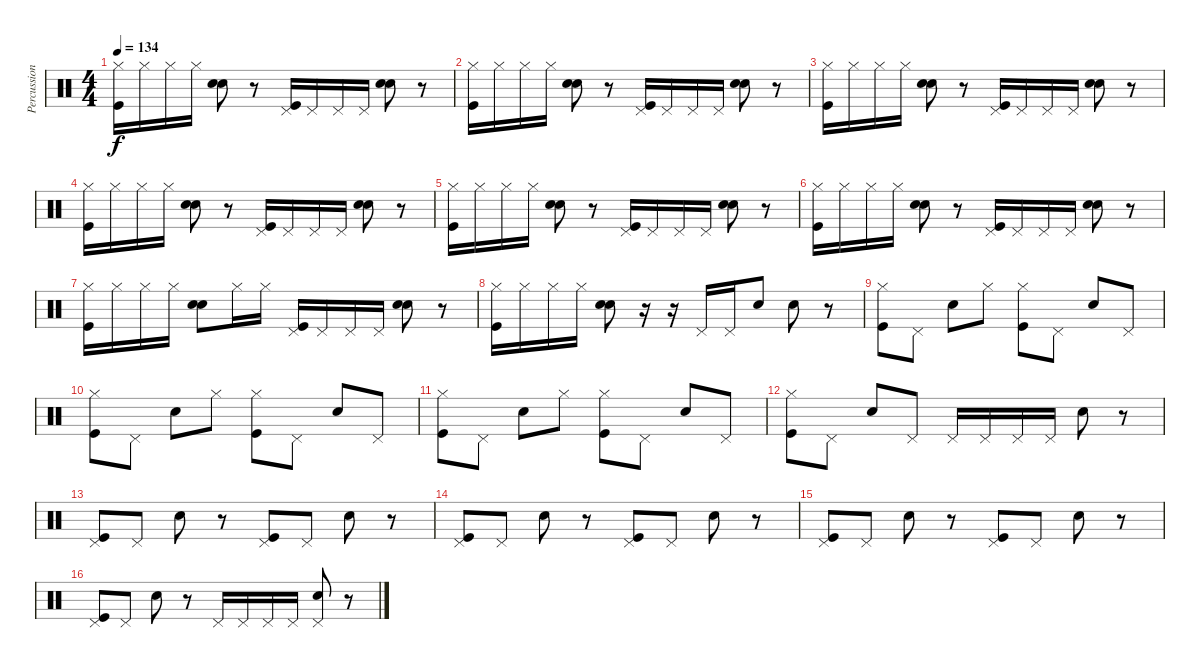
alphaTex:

\track ("Percussion" "Percussion") {instrument percussion}
\staff {score}
\articulation defaults
\ts (4 4)
\tempo 134
\clef neutral
\ks c
("Hi-Hat (closed)" "Kick (hit)").16{dy f} "Hi-Hat (closed)".16 "Hi-Hat (closed)".16 "Hi-Hat (closed)".16 ("Hand Clap (hit)" "Electric Snare (hit)").8 r.8 ("Pedal Hi-Hat (hit)" "Kick (hit)").16 "Pedal Hi-Hat (hit)".16 "Pedal Hi-Hat (hit)".16 "Pedal Hi-Hat (hit)".16 ("Hand Clap (hit)" "Electric Snare (hit)").8 r.8 |
("Hi-Hat (closed)" "Kick (hit)").16 "Hi-Hat (closed)".16 "Hi-Hat (closed)".16 "Hi-Hat (closed)".16 ("Hand Clap (hit)" "Electric Snare (hit)").8 r.8 ("Pedal Hi-Hat (hit)" "Kick (hit)").16 "Pedal Hi-Hat (hit)".16 "Pedal Hi-Hat (hit)".16 "Pedal Hi-Hat (hit)".16 ("Hand Clap (hit)" "Electric Snare (hit)").8 r.8 |
("Hi-Hat (closed)" "Kick (hit)").16 "Hi-Hat (closed)".16 "Hi-Hat (closed)".16 "Hi-Hat (closed)".16 ("Hand Clap (hit)" "Electric Snare (hit)").8 r.8 ("Pedal Hi-Hat (hit)" "Kick (hit)").16 "Pedal Hi-Hat (hit)".16 "Pedal Hi-Hat (hit)".16 "Pedal Hi-Hat (hit)".16 ("Hand Clap (hit)" "Electric Snare (hit)").8 r.8 |
("Hi-Hat (closed)" "Kick (hit)").16 "Hi-Hat (closed)".16 "Hi-Hat (closed)".16 "Hi-Hat (closed)".16 ("Hand Clap (hit)" "Electric Snare (hit)").8 r.8 ("Pedal Hi-Hat (hit)" "Kick (hit)").16 "Pedal Hi-Hat (hit)".16 "Pedal Hi-Hat (hit)".16 "Pedal Hi-Hat (hit)".16 ("Hand Clap (hit)" "Electric Snare (hit)").8 r.8 |
("Hi-Hat (closed)" "Kick (hit)").16 "Hi-Hat (closed)".16 "Hi-Hat (closed)".16 "Hi-Hat (closed)".16 ("Hand Clap (hit)" "Electric Snare (hit)").8 r.8 ("Pedal Hi-Hat (hit)" "Kick (hit)").16 "Pedal Hi-Hat (hit)".16 "Pedal Hi-Hat (hit)".16 "Pedal Hi-Hat (hit)".16 ("Hand Clap (hit)" "Electric Snare (hit)").8 r.8 |
("Hi-Hat (closed)" "Kick (hit)").16 "Hi-Hat (closed)".16 "Hi-Hat (closed)".16 "Hi-Hat (closed)".16 ("Hand Clap (hit)" "Electric Snare (hit)").8 r.8 ("Pedal Hi-Hat (hit)" "Kick (hit)").16 "Pedal Hi-Hat (hit)".16 "Pedal Hi-Hat (hit)".16 "Pedal Hi-Hat (hit)".16 ("Hand Clap (hit)" "Electric Snare (hit)").8 r.8 |
("Hi-Hat (closed)" "Kick (hit)").16 "Hi-Hat (closed)".16 "Hi-Hat (closed)".16 "Hi-Hat (closed)".16 ("Hand Clap (hit)" "Electric Snare (hit)").8 "Hi-Hat (closed)".16 "Hi-Hat (closed)".16 ("Pedal Hi-Hat (hit)" "Kick (hit)").16 "Pedal Hi-Hat (hit)".16 "Pedal Hi-Hat (hit)".16 "Pedal Hi-Hat (hit)".16 ("Hand Clap (hit)" "Electric Snare (hit)").8 r.8 |
("Hi-Hat (closed)" "Kick (hit)").16 "Hi-Hat (closed)".16 "Hi-Hat (closed)".16 "Hi-Hat (closed)".16 ("Hand Clap (hit)" "Electric Snare (hit)").8 r.16 r.16 "Pedal Hi-Hat (hit)".16 "Pedal Hi-Hat (hit)".16 "Hand Clap (hit)".8 "Hand Clap (hit)".8 r.8 |
("Hi-Hat (closed)" "Kick (hit)").8 "Pedal Hi-Hat (hit)".8 "Electric Snare (hit)".8 "Hi-Hat (closed)".8 ("Hi-Hat (closed)" "Kick (hit)").8 "Pedal Hi-Hat (hit)".8 "Electric Snare (hit)".8 "Pedal Hi-Hat (hit)".8 |
("Hi-Hat (closed)" "Kick (hit)").8 "Pedal Hi-Hat (hit)".8 "Electric Snare (hit)".8 "Hi-Hat (closed)".8 ("Hi-Hat (closed)" "Kick (hit)").8 "Pedal Hi-Hat (hit)".8 "Electric Snare (hit)".8 "Pedal Hi-Hat (hit)".8 |
("Hi-Hat (closed)" "Kick (hit)").8 "Pedal Hi-Hat (hit)".8 "Electric Snare (hit)".8 "Hi-Hat (closed)".8 ("Hi-Hat (closed)" "Kick (hit)").8 "Pedal Hi-Hat (hit)".8 "Electric Snare (hit)".8 "Pedal Hi-Hat (hit)".8 |
("Hi-Hat (closed)" "Kick (hit)").8 "Pedal Hi-Hat (hit)".8 "Electric Snare (hit)".8 "Pedal Hi-Hat (hit)".8 "Pedal Hi-Hat (hit)".16 "Pedal Hi-Hat (hit)".16 "Pedal Hi-Hat (hit)".16 "Pedal Hi-Hat (hit)".16 "Electric Snare (hit)".8 r.8 |
("Pedal Hi-Hat (hit)" "Kick (hit)").8 "Pedal Hi-Hat (hit)".8 "Electric Snare (hit)".8 r.8 ("Pedal Hi-Hat (hit)" "Kick (hit)").8 "Pedal Hi-Hat (hit)".8 "Electric Snare (hit)".8 r.8 |
("Pedal Hi-Hat (hit)" "Kick (hit)").8 "Pedal Hi-Hat (hit)".8 "Electric Snare (hit)".8 r.8 ("Pedal Hi-Hat (hit)" "Kick (hit)").8 "Pedal Hi-Hat (hit)".8 "Electric Snare (hit)".8 r.8 |
("Pedal Hi-Hat (hit)" "Kick (hit)").8 "Pedal Hi-Hat (hit)".8 "Electric Snare (hit)".8 r.8 ("Pedal Hi-Hat (hit)" "Kick (hit)").8 "Pedal Hi-Hat (hit)".8 "Electric Snare (hit)".8 r.8 |
("Pedal Hi-Hat (hit)" "Kick (hit)").8 "Pedal Hi-Hat (hit)".8 "Electric Snare (hit)".8 r.8 "Pedal Hi-Hat (hit)".16 "Pedal Hi-Hat (hit)".16 "Pedal Hi-Hat (hit)".16 "Pedal Hi-Hat (hit)".16 ("Pedal Hi-Hat (hit)" "Electric Snare (hit)").8 r.8
